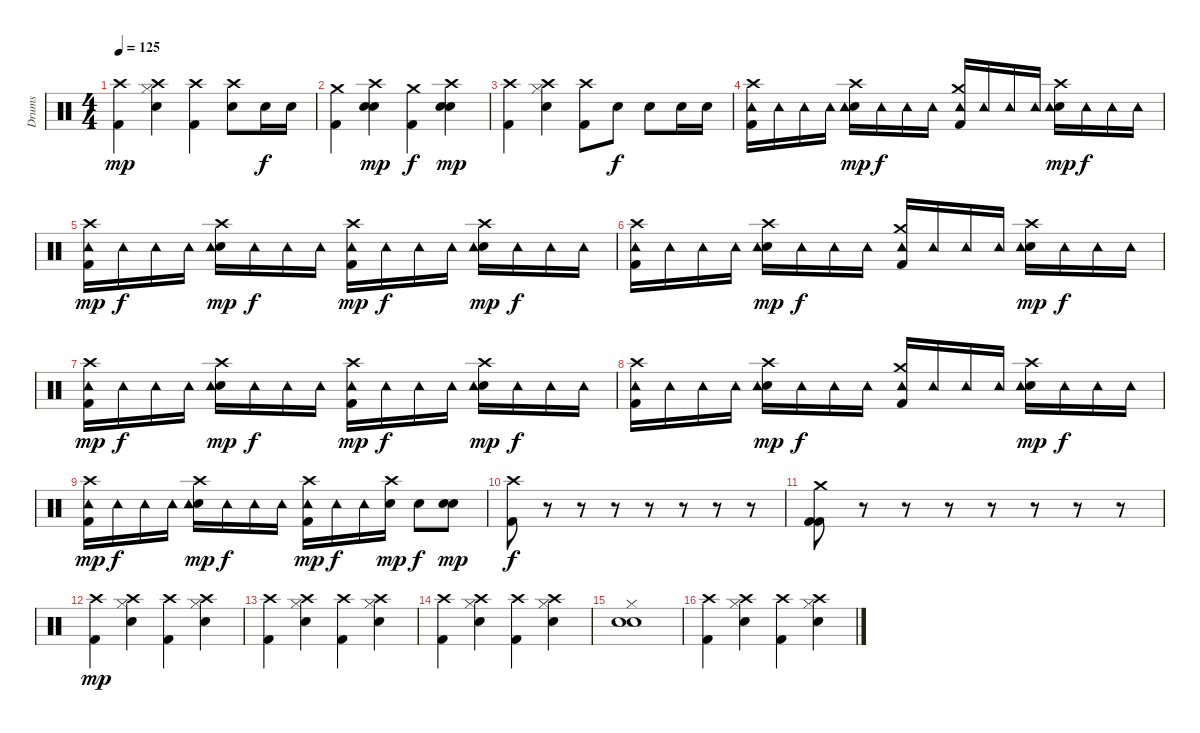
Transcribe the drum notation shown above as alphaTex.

\track ("Drums" "Drums") {instrument percussion}
\staff {score}
\articulation defaults
\ts (4 4)
\tempo 125
\clef neutral
\ks c
("Crash high (hit)" "Kick (hit) 2").4{dy mp} ("Crash high (hit)" "Snare (hit) 2" "Hi-Hat (closed)").4 ("Crash high (hit)" "Kick (hit) 2").4 ("Crash high (hit)" "Snare (hit) 2").8 "Snare (hit) 2".16{dy f} "Snare (hit) 2".16 |
("Crash medium (hit)" "Kick (hit) 2").4 ("Crash high (hit)" "Snare (hit) 2" "Electric Snare (hit)").4{dy mp} ("Crash medium (hit)" "Kick (hit) 2").4{dy f} ("Crash high (hit)" "Snare (hit) 2" "Electric Snare (hit)").4{dy mp} |
("Crash high (hit)" "Kick (hit) 2").4 ("Crash high (hit)" "Snare (hit) 2" "Hi-Hat (closed)").4 ("Crash high (hit)" "Kick (hit) 2").8 "Snare (hit) 2".8{dy f} "Snare (hit) 2".8 "Snare (hit) 2".16 "Snare (hit) 2".16 |
("Crash high (hit)" "Kick (hit) 2" "Tambourine (hit)").16 "Tambourine (hit)".16 "Tambourine (hit)".16 "Tambourine (hit)".16 ("Crash high (hit)" "Snare (hit) 2" "Tambourine (hit)").16{dy mp} "Tambourine (hit)".16{dy f} "Tambourine (hit)".16 "Tambourine (hit)".16 ("Crash medium (hit)" "Kick (hit) 2" "Tambourine (hit)").16 "Tambourine (hit)".16 "Tambourine (hit)".16 "Tambourine (hit)".16 ("Crash high (hit)" "Snare (hit) 2" "Tambourine (hit)").16{dy mp} "Tambourine (hit)".16{dy f} "Tambourine (hit)".16 "Tambourine (hit)".16 |
("Crash high (hit)" "Kick (hit) 2" "Tambourine (hit)").16{dy mp} "Tambourine (hit)".16{dy f} "Tambourine (hit)".16 "Tambourine (hit)".16 ("Crash high (hit)" "Snare (hit) 2" "Tambourine (hit)").16{dy mp} "Tambourine (hit)".16{dy f} "Tambourine (hit)".16 "Tambourine (hit)".16 ("Crash high (hit)" "Kick (hit) 2" "Tambourine (hit)").16{dy mp} "Tambourine (hit)".16{dy f} "Tambourine (hit)".16 "Tambourine (hit)".16 ("Crash high (hit)" "Snare (hit) 2" "Tambourine (hit)").16{dy mp} "Tambourine (hit)".16{dy f} "Tambourine (hit)".16 "Tambourine (hit)".16 |
("Crash high (hit)" "Kick (hit) 2" "Tambourine (hit)").16 "Tambourine (hit)".16 "Tambourine (hit)".16 "Tambourine (hit)".16 ("Crash high (hit)" "Snare (hit) 2" "Tambourine (hit)").16{dy mp} "Tambourine (hit)".16{dy f} "Tambourine (hit)".16 "Tambourine (hit)".16 ("Crash medium (hit)" "Kick (hit) 2" "Tambourine (hit)").16 "Tambourine (hit)".16 "Tambourine (hit)".16 "Tambourine (hit)".16 ("Crash high (hit)" "Snare (hit) 2" "Tambourine (hit)").16{dy mp} "Tambourine (hit)".16{dy f} "Tambourine (hit)".16 "Tambourine (hit)".16 |
("Crash high (hit)" "Kick (hit) 2" "Tambourine (hit)").16{dy mp} "Tambourine (hit)".16{dy f} "Tambourine (hit)".16 "Tambourine (hit)".16 ("Crash high (hit)" "Snare (hit) 2" "Tambourine (hit)").16{dy mp} "Tambourine (hit)".16{dy f} "Tambourine (hit)".16 "Tambourine (hit)".16 ("Crash high (hit)" "Kick (hit) 2" "Tambourine (hit)").16{dy mp} "Tambourine (hit)".16{dy f} "Tambourine (hit)".16 "Tambourine (hit)".16 ("Crash high (hit)" "Snare (hit) 2" "Tambourine (hit)").16{dy mp} "Tambourine (hit)".16{dy f} "Tambourine (hit)".16 "Tambourine (hit)".16 |
("Crash high (hit)" "Kick (hit) 2" "Tambourine (hit)").16 "Tambourine (hit)".16 "Tambourine (hit)".16 "Tambourine (hit)".16 ("Crash high (hit)" "Snare (hit) 2" "Tambourine (hit)").16{dy mp} "Tambourine (hit)".16{dy f} "Tambourine (hit)".16 "Tambourine (hit)".16 ("Crash medium (hit)" "Kick (hit) 2" "Tambourine (hit)").16 "Tambourine (hit)".16 "Tambourine (hit)".16 "Tambourine (hit)".16 ("Crash high (hit)" "Snare (hit) 2" "Tambourine (hit)").16{dy mp} "Tambourine (hit)".16{dy f} "Tambourine (hit)".16 "Tambourine (hit)".16 |
("Crash high (hit)" "Kick (hit) 2" "Tambourine (hit)").16{dy mp} "Tambourine (hit)".16{dy f} "Tambourine (hit)".16 "Tambourine (hit)".16 ("Crash high (hit)" "Snare (hit) 2" "Tambourine (hit)").16{dy mp} "Tambourine (hit)".16{dy f} "Tambourine (hit)".16 "Tambourine (hit)".16 ("Crash high (hit)" "Kick (hit) 2" "Tambourine (hit)").16{dy mp} "Tambourine (hit)".16{dy f} "Tambourine (hit)".16 ("Crash high (hit)" "Snare (hit) 2").16{dy mp} "Snare (hit) 2".8{dy f} ("Snare (hit) 2" "Snare (hit) 2").8{dy mp} |
("Crash high (hit)" "Kick (hit) 2").8{dy f} r.8 r.8 r.8 r.8 r.8 r.8 r.8 |
("Crash medium (hit)" "Kick (hit) 2" "Kick (hit) 2").8 r.8 r.8 r.8 r.8 r.8 r.8 r.8 |
("Crash high (hit)" "Kick (hit) 2").4{dy mp} ("Crash high (hit)" "Snare (hit) 2" "Hi-Hat (closed)").4 ("Crash high (hit)" "Kick (hit) 2").4 ("Crash high (hit)" "Snare (hit) 2" "Hi-Hat (closed)").4 |
("Crash high (hit)" "Kick (hit) 2").4 ("Crash high (hit)" "Snare (hit) 2" "Hi-Hat (closed)").4 ("Crash high (hit)" "Kick (hit) 2").4 ("Crash high (hit)" "Snare (hit) 2" "Hi-Hat (closed)").4 |
("Crash high (hit)" "Kick (hit) 2").4 ("Crash high (hit)" "Snare (hit) 2" "Hi-Hat (closed)").4 ("Crash high (hit)" "Kick (hit) 2").4 ("Crash high (hit)" "Snare (hit) 2" "Hi-Hat (closed)").4 |
("Hi-Hat (closed)" "Snare (hit) 2" "Electric Snare (hit)").1 |
("Crash high (hit)" "Kick (hit) 2").4 ("Crash high (hit)" "Snare (hit) 2" "Hi-Hat (closed)").4 ("Crash high (hit)" "Kick (hit) 2").4 ("Crash high (hit)" "Snare (hit) 2" "Hi-Hat (closed)").4
